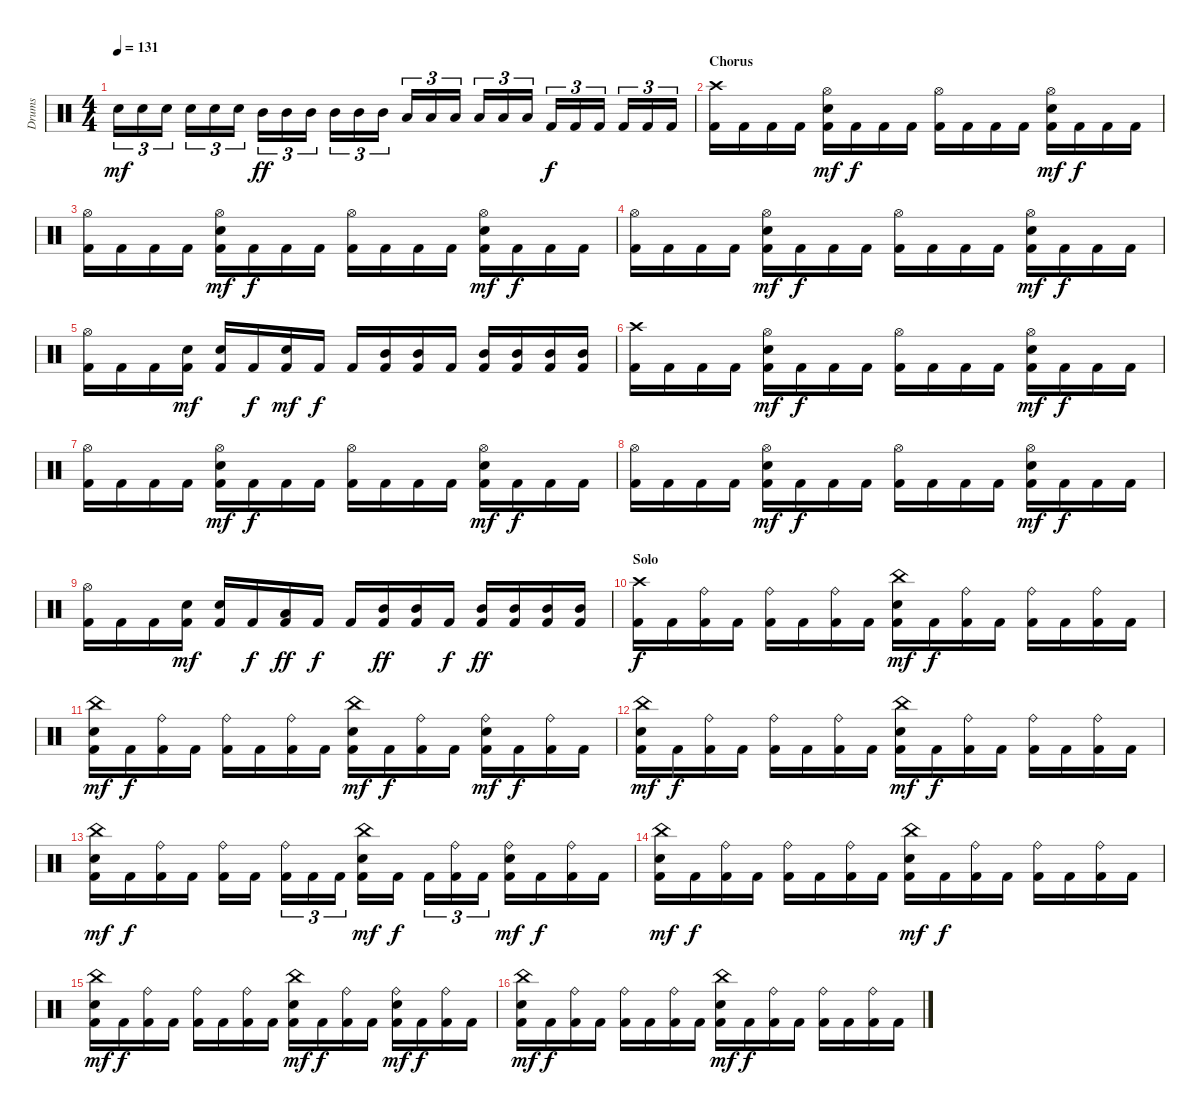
\track ("Drums" "Drums") {instrument percussion}
\staff {score}
\articulation defaults
\ts (4 4)
\tempo 131
\clef neutral
\ks c "Snare (hit) 2".16{tu (3 2) dy mf} "Snare (hit) 2".16{tu (3 2)} "Snare (hit) 2".16{tu (3 2)} "Snare (hit) 2".16{tu (3 2)} "Snare (hit) 2".16{tu (3 2)} "Snare (hit) 2".16{tu (3 2)} "Mid Tom (hit)".16{tu (3 2) dy ff} "Mid Tom (hit)".16{tu (3 2)} "Mid Tom (hit)".16{tu (3 2)} "Mid Tom (hit)".16{tu (3 2)} "Mid Tom (hit)".16{tu (3 2)} "Mid Tom (hit)".16{tu (3 2)} "Low Tom (hit)".16{tu (3 2)} "Low Tom (hit)".16{tu (3 2)} "Low Tom (hit)".16{tu (3 2)} "Low Tom (hit)".16{tu (3 2)} "Low Tom (hit)".16{tu (3 2)} "Low Tom (hit)".16{tu (3 2)} "Kick (hit) 2".16{tu (3 2) dy f} "Kick (hit) 2".16{tu (3 2)} "Kick (hit) 2".16{tu (3 2)} "Kick (hit) 2".16{tu (3 2)} "Kick (hit) 2".16{tu (3 2)} "Kick (hit) 2".16{tu (3 2)}
|
\section ("" "Chorus")
("Crash high (hit)" "Kick (hit) 2").16 "Kick (hit) 2".16 "Kick (hit) 2".16 "Kick (hit) 2".16 ("Hi-Hat (open)" "Snare (hit) 2" "Kick (hit) 2").16{dy mf} "Kick (hit) 2".16{dy f} "Kick (hit) 2".16 "Kick (hit) 2".16 ("Hi-Hat (open)" "Kick (hit) 2").16 "Kick (hit) 2".16 "Kick (hit) 2".16 "Kick (hit) 2".16 ("Hi-Hat (open)" "Snare (hit) 2" "Kick (hit) 2").16{dy mf} "Kick (hit) 2".16{dy f} "Kick (hit) 2".16 "Kick (hit) 2".16 |
("Hi-Hat (open)" "Kick (hit) 2").16 "Kick (hit) 2".16 "Kick (hit) 2".16 "Kick (hit) 2".16 ("Hi-Hat (open)" "Snare (hit) 2" "Kick (hit) 2").16{dy mf} "Kick (hit) 2".16{dy f} "Kick (hit) 2".16 "Kick (hit) 2".16 ("Hi-Hat (open)" "Kick (hit) 2").16 "Kick (hit) 2".16 "Kick (hit) 2".16 "Kick (hit) 2".16 ("Hi-Hat (open)" "Snare (hit) 2" "Kick (hit) 2").16{dy mf} "Kick (hit) 2".16{dy f} "Kick (hit) 2".16 "Kick (hit) 2".16 |
("Hi-Hat (open)" "Kick (hit) 2").16 "Kick (hit) 2".16 "Kick (hit) 2".16 "Kick (hit) 2".16 ("Hi-Hat (open)" "Snare (hit) 2" "Kick (hit) 2").16{dy mf} "Kick (hit) 2".16{dy f} "Kick (hit) 2".16 "Kick (hit) 2".16 ("Hi-Hat (open)" "Kick (hit) 2").16 "Kick (hit) 2".16 "Kick (hit) 2".16 "Kick (hit) 2".16 ("Hi-Hat (open)" "Snare (hit) 2" "Kick (hit) 2").16{dy mf} "Kick (hit) 2".16{dy f} "Kick (hit) 2".16 "Kick (hit) 2".16 |
("Hi-Hat (open)" "Kick (hit) 2").16 "Kick (hit) 2".16 "Kick (hit) 2".16 ("Snare (hit) 2" "Kick (hit) 2").16{dy mf} ("Snare (hit) 2" "Kick (hit) 2").16 "Kick (hit) 2".16{dy f} ("Snare (hit) 2" "Kick (hit) 2").16{dy mf} "Kick (hit) 2".16{dy f} "Kick (hit) 2".16 ("Mid Tom (hit)" "Kick (hit) 2").16 ("Mid Tom (hit)" "Kick (hit) 2").16 "Kick (hit) 2".16 ("Mid Tom (hit)" "Kick (hit) 2").16 ("Mid Tom (hit)" "Kick (hit) 2").16 ("Mid Tom (hit)" "Kick (hit) 2").16 ("Mid Tom (hit)" "Kick (hit) 2").16 |
("Crash high (hit)" "Kick (hit) 2").16 "Kick (hit) 2".16 "Kick (hit) 2".16 "Kick (hit) 2".16 ("Hi-Hat (open)" "Snare (hit) 2" "Kick (hit) 2").16{dy mf} "Kick (hit) 2".16{dy f} "Kick (hit) 2".16 "Kick (hit) 2".16 ("Hi-Hat (open)" "Kick (hit) 2").16 "Kick (hit) 2".16 "Kick (hit) 2".16 "Kick (hit) 2".16 ("Hi-Hat (open)" "Snare (hit) 2" "Kick (hit) 2").16{dy mf} "Kick (hit) 2".16{dy f} "Kick (hit) 2".16 "Kick (hit) 2".16 |
("Hi-Hat (open)" "Kick (hit) 2").16 "Kick (hit) 2".16 "Kick (hit) 2".16 "Kick (hit) 2".16 ("Hi-Hat (open)" "Snare (hit) 2" "Kick (hit) 2").16{dy mf} "Kick (hit) 2".16{dy f} "Kick (hit) 2".16 "Kick (hit) 2".16 ("Hi-Hat (open)" "Kick (hit) 2").16 "Kick (hit) 2".16 "Kick (hit) 2".16 "Kick (hit) 2".16 ("Hi-Hat (open)" "Snare (hit) 2" "Kick (hit) 2").16{dy mf} "Kick (hit) 2".16{dy f} "Kick (hit) 2".16 "Kick (hit) 2".16 |
("Hi-Hat (open)" "Kick (hit) 2").16 "Kick (hit) 2".16 "Kick (hit) 2".16 "Kick (hit) 2".16 ("Hi-Hat (open)" "Snare (hit) 2" "Kick (hit) 2").16{dy mf} "Kick (hit) 2".16{dy f} "Kick (hit) 2".16 "Kick (hit) 2".16 ("Hi-Hat (open)" "Kick (hit) 2").16 "Kick (hit) 2".16 "Kick (hit) 2".16 "Kick (hit) 2".16 ("Hi-Hat (open)" "Snare (hit) 2" "Kick (hit) 2").16{dy mf} "Kick (hit) 2".16{dy f} "Kick (hit) 2".16 "Kick (hit) 2".16 |
("Hi-Hat (open)" "Kick (hit) 2").16 "Kick (hit) 2".16 "Kick (hit) 2".16 ("Snare (hit) 2" "Kick (hit) 2").16{dy mf} ("Snare (hit) 2" "Kick (hit) 2").16 "Kick (hit) 2".16{dy f} ("Low Tom (hit)" "Kick (hit) 2").16{dy ff} "Kick (hit) 2".16{dy f} "Kick (hit) 2".16 ("Mid Tom (hit)" "Kick (hit) 2").16{dy ff} ("Mid Tom (hit)" "Kick (hit) 2").16 "Kick (hit) 2".16{dy f} ("Mid Tom (hit)" "Kick (hit) 2").16{dy ff} ("Mid Tom (hit)" "Kick (hit) 2").16 ("Mid Tom (hit)" "Kick (hit) 2").16 ("Mid Tom (hit)" "Kick (hit) 2").16 |
\section ("" "Solo")
("Crash high (hit)" "Kick (hit) 2").16{dy f} "Kick (hit) 2".16 ("Ride (bell)" "Kick (hit) 2").16 "Kick (hit) 2".16 ("Ride (bell)" "Kick (hit) 2").16 "Kick (hit) 2".16 ("Ride (bell)" "Kick (hit) 2").16 "Kick (hit) 2".16 ("China (hit)" "Snare (hit) 2" "Kick (hit) 2").16{dy mf} "Kick (hit) 2".16{dy f} ("Ride (bell)" "Kick (hit) 2").16 "Kick (hit) 2".16 ("Ride (bell)" "Kick (hit) 2").16 "Kick (hit) 2".16 ("Ride (bell)" "Kick (hit) 2").16 "Kick (hit) 2".16 |
("China (hit)" "Snare (hit) 2" "Kick (hit) 2").16{dy mf} "Kick (hit) 2".16{dy f} ("Ride (bell)" "Kick (hit) 2").16 "Kick (hit) 2".16 ("Ride (bell)" "Kick (hit) 2").16 "Kick (hit) 2".16 ("Ride (bell)" "Kick (hit) 2").16 "Kick (hit) 2".16 ("China (hit)" "Snare (hit) 2" "Kick (hit) 2").16{dy mf} "Kick (hit) 2".16{dy f} ("Ride (bell)" "Kick (hit) 2").16 "Kick (hit) 2".16 ("Ride (bell)" "Snare (hit) 2" "Kick (hit) 2").16{dy mf} "Kick (hit) 2".16{dy f} ("Ride (bell)" "Kick (hit) 2").16 "Kick (hit) 2".16 |
("China (hit)" "Snare (hit) 2" "Kick (hit) 2").16{dy mf} "Kick (hit) 2".16{dy f} ("Ride (bell)" "Kick (hit) 2").16 "Kick (hit) 2".16 ("Ride (bell)" "Kick (hit) 2").16 "Kick (hit) 2".16 ("Ride (bell)" "Kick (hit) 2").16 "Kick (hit) 2".16 ("China (hit)" "Snare (hit) 2" "Kick (hit) 2").16{dy mf} "Kick (hit) 2".16{dy f} ("Ride (bell)" "Kick (hit) 2").16 "Kick (hit) 2".16 ("Ride (bell)" "Kick (hit) 2").16 "Kick (hit) 2".16 ("Ride (bell)" "Kick (hit) 2").16 "Kick (hit) 2".16 |
("China (hit)" "Snare (hit) 2" "Kick (hit) 2").16{dy mf} "Kick (hit) 2".16{dy f} ("Ride (bell)" "Kick (hit) 2").16 "Kick (hit) 2".16 ("Ride (bell)" "Kick (hit) 2").16 "Kick (hit) 2".16 ("Ride (bell)" "Kick (hit) 2").16{tu (3 2)} "Kick (hit) 2".16{tu (3 2)} "Kick (hit) 2".16{tu (3 2)} ("China (hit)" "Snare (hit) 2" "Kick (hit) 2").16{dy mf} "Kick (hit) 2".16{dy f} "Kick (hit) 2".16{tu (3 2)} ("Ride (bell)" "Kick (hit) 2").16{tu (3 2)} "Kick (hit) 2".16{tu (3 2)} ("Ride (bell)" "Snare (hit) 2" "Kick (hit) 2").16{dy mf} "Kick (hit) 2".16{dy f} ("Ride (bell)" "Kick (hit) 2").16 "Kick (hit) 2".16 |
("China (hit)" "Snare (hit) 2" "Kick (hit) 2").16{dy mf} "Kick (hit) 2".16{dy f} ("Ride (bell)" "Kick (hit) 2").16 "Kick (hit) 2".16 ("Ride (bell)" "Kick (hit) 2").16 "Kick (hit) 2".16 ("Ride (bell)" "Kick (hit) 2").16 "Kick (hit) 2".16 ("China (hit)" "Snare (hit) 2" "Kick (hit) 2").16{dy mf} "Kick (hit) 2".16{dy f} ("Ride (bell)" "Kick (hit) 2").16 "Kick (hit) 2".16 ("Ride (bell)" "Kick (hit) 2").16 "Kick (hit) 2".16 ("Ride (bell)" "Kick (hit) 2").16 "Kick (hit) 2".16 |
("China (hit)" "Snare (hit) 2" "Kick (hit) 2").16{dy mf} "Kick (hit) 2".16{dy f} ("Ride (bell)" "Kick (hit) 2").16 "Kick (hit) 2".16 ("Ride (bell)" "Kick (hit) 2").16 "Kick (hit) 2".16 ("Ride (bell)" "Kick (hit) 2").16 "Kick (hit) 2".16 ("China (hit)" "Snare (hit) 2" "Kick (hit) 2").16{dy mf} "Kick (hit) 2".16{dy f} ("Ride (bell)" "Kick (hit) 2").16 "Kick (hit) 2".16 ("Ride (bell)" "Snare (hit) 2" "Kick (hit) 2").16{dy mf} "Kick (hit) 2".16{dy f} ("Ride (bell)" "Kick (hit) 2").16 "Kick (hit) 2".16 |
("China (hit)" "Snare (hit) 2" "Kick (hit) 2").16{dy mf} "Kick (hit) 2".16{dy f} ("Ride (bell)" "Kick (hit) 2").16 "Kick (hit) 2".16 ("Ride (bell)" "Kick (hit) 2").16 "Kick (hit) 2".16 ("Ride (bell)" "Kick (hit) 2").16 "Kick (hit) 2".16 ("China (hit)" "Snare (hit) 2" "Kick (hit) 2").16{dy mf} "Kick (hit) 2".16{dy f} ("Ride (bell)" "Kick (hit) 2").16 "Kick (hit) 2".16 ("Ride (bell)" "Kick (hit) 2").16 "Kick (hit) 2".16 ("Ride (bell)" "Kick (hit) 2").16 "Kick (hit) 2".16
